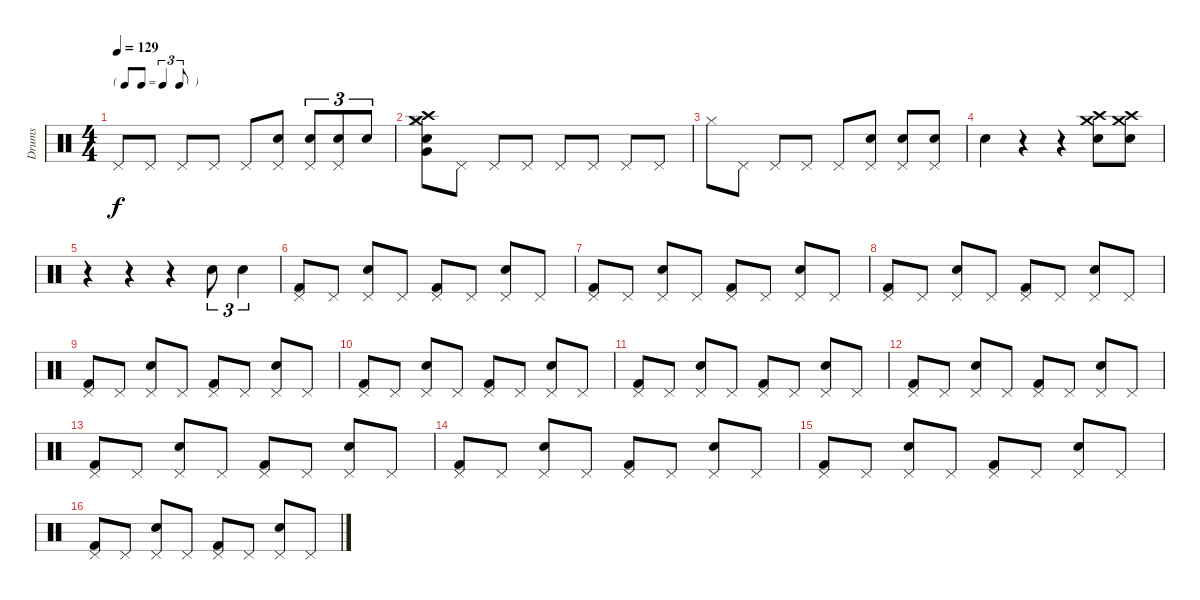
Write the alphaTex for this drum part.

\track ("Drums" "Drums") {instrument percussion}
\staff {score}
\articulation defaults
\ts (4 4)
\tf triplet8th
\tempo 129
\clef neutral
\ks c "Pedal Hi-Hat (hit)".8{dy f} "Pedal Hi-Hat (hit)".8 "Pedal Hi-Hat (hit)".8 "Pedal Hi-Hat (hit)".8 "Pedal Hi-Hat (hit)".8
("Pedal Hi-Hat (hit)" "Electric Snare (hit)").8 ("Pedal Hi-Hat (hit)" "Electric Snare (hit)").8{tu (3 2)} ("Pedal Hi-Hat (hit)" "Electric Snare (hit)").8{tu (3 2)} "Electric Snare (hit)".8{tu (3 2)} |
("Very Low Tom (hit)" "Crash high (hit)" "Hi-Hat (closed)" "Crash medium (hit)" "Electric Snare (hit)").8 "Pedal Hi-Hat (hit)".8 "Pedal Hi-Hat (hit)".8 "Pedal Hi-Hat (hit)".8 "Pedal Hi-Hat (hit)".8 "Pedal Hi-Hat (hit)".8 "Pedal Hi-Hat (hit)".8 "Pedal Hi-Hat (hit)".8 |
"Hi-Hat (closed)".8 "Pedal Hi-Hat (hit)".8 "Pedal Hi-Hat (hit)".8 "Pedal Hi-Hat (hit)".8 "Pedal Hi-Hat (hit)".8 ("Pedal Hi-Hat (hit)" "Electric Snare (hit)").8 ("Pedal Hi-Hat (hit)" "Electric Snare (hit)").8 ("Pedal Hi-Hat (hit)" "Electric Snare (hit)").8 |
"Electric Snare (hit)".4 r.4 r.4 ("Crash high (hit)" "Crash medium (hit)" "Electric Snare (hit)").8 ("Crash high (hit)" "Crash medium (hit)" "Electric Snare (hit)").8 |
r.4 r.4 r.4 "Electric Snare (hit)".8{tu (3 2)} "Electric Snare (hit)".4{tu (3 2)} |
("Pedal Hi-Hat (hit)" "Kick (hit) 2").8 "Pedal Hi-Hat (hit)".8 ("Pedal Hi-Hat (hit)" "Electric Snare (hit)").8 "Pedal Hi-Hat (hit)".8 ("Pedal Hi-Hat (hit)" "Kick (hit) 2").8 "Pedal Hi-Hat (hit)".8 ("Pedal Hi-Hat (hit)" "Electric Snare (hit)").8 "Pedal Hi-Hat (hit)".8 |
("Pedal Hi-Hat (hit)" "Kick (hit) 2").8 "Pedal Hi-Hat (hit)".8 ("Pedal Hi-Hat (hit)" "Electric Snare (hit)").8 "Pedal Hi-Hat (hit)".8 ("Pedal Hi-Hat (hit)" "Kick (hit) 2").8 "Pedal Hi-Hat (hit)".8 ("Pedal Hi-Hat (hit)" "Electric Snare (hit)").8 "Pedal Hi-Hat (hit)".8 |
("Pedal Hi-Hat (hit)" "Kick (hit) 2").8 "Pedal Hi-Hat (hit)".8 ("Pedal Hi-Hat (hit)" "Electric Snare (hit)").8 "Pedal Hi-Hat (hit)".8 ("Pedal Hi-Hat (hit)" "Kick (hit) 2").8 "Pedal Hi-Hat (hit)".8 ("Pedal Hi-Hat (hit)" "Electric Snare (hit)").8 "Pedal Hi-Hat (hit)".8 |
("Pedal Hi-Hat (hit)" "Kick (hit) 2").8 "Pedal Hi-Hat (hit)".8 ("Pedal Hi-Hat (hit)" "Electric Snare (hit)").8 "Pedal Hi-Hat (hit)".8 ("Pedal Hi-Hat (hit)" "Kick (hit) 2").8 "Pedal Hi-Hat (hit)".8 ("Pedal Hi-Hat (hit)" "Electric Snare (hit)").8 "Pedal Hi-Hat (hit)".8 |
("Pedal Hi-Hat (hit)" "Kick (hit) 2").8 "Pedal Hi-Hat (hit)".8 ("Pedal Hi-Hat (hit)" "Electric Snare (hit)").8 "Pedal Hi-Hat (hit)".8 ("Pedal Hi-Hat (hit)" "Kick (hit) 2").8 "Pedal Hi-Hat (hit)".8 ("Pedal Hi-Hat (hit)" "Electric Snare (hit)").8 "Pedal Hi-Hat (hit)".8 |
("Pedal Hi-Hat (hit)" "Kick (hit) 2").8 "Pedal Hi-Hat (hit)".8 ("Pedal Hi-Hat (hit)" "Electric Snare (hit)").8 "Pedal Hi-Hat (hit)".8 ("Pedal Hi-Hat (hit)" "Kick (hit) 2").8 "Pedal Hi-Hat (hit)".8 ("Pedal Hi-Hat (hit)" "Electric Snare (hit)").8 "Pedal Hi-Hat (hit)".8 |
("Pedal Hi-Hat (hit)" "Kick (hit) 2").8 "Pedal Hi-Hat (hit)".8 ("Pedal Hi-Hat (hit)" "Electric Snare (hit)").8 "Pedal Hi-Hat (hit)".8 ("Pedal Hi-Hat (hit)" "Kick (hit) 2").8 "Pedal Hi-Hat (hit)".8 ("Pedal Hi-Hat (hit)" "Electric Snare (hit)").8 "Pedal Hi-Hat (hit)".8 |
("Pedal Hi-Hat (hit)" "Kick (hit) 2").8 "Pedal Hi-Hat (hit)".8 ("Pedal Hi-Hat (hit)" "Electric Snare (hit)").8 "Pedal Hi-Hat (hit)".8 ("Pedal Hi-Hat (hit)" "Kick (hit) 2").8 "Pedal Hi-Hat (hit)".8 ("Pedal Hi-Hat (hit)" "Electric Snare (hit)").8 "Pedal Hi-Hat (hit)".8 |
("Pedal Hi-Hat (hit)" "Kick (hit) 2").8 "Pedal Hi-Hat (hit)".8 ("Pedal Hi-Hat (hit)" "Electric Snare (hit)").8 "Pedal Hi-Hat (hit)".8 ("Pedal Hi-Hat (hit)" "Kick (hit) 2").8 "Pedal Hi-Hat (hit)".8 ("Pedal Hi-Hat (hit)" "Electric Snare (hit)").8 "Pedal Hi-Hat (hit)".8 |
("Pedal Hi-Hat (hit)" "Kick (hit) 2").8 "Pedal Hi-Hat (hit)".8 ("Pedal Hi-Hat (hit)" "Electric Snare (hit)").8 "Pedal Hi-Hat (hit)".8 ("Pedal Hi-Hat (hit)" "Kick (hit) 2").8 "Pedal Hi-Hat (hit)".8 ("Pedal Hi-Hat (hit)" "Electric Snare (hit)").8 "Pedal Hi-Hat (hit)".8 |
("Pedal Hi-Hat (hit)" "Kick (hit) 2").8 "Pedal Hi-Hat (hit)".8 ("Pedal Hi-Hat (hit)" "Electric Snare (hit)").8 "Pedal Hi-Hat (hit)".8 ("Pedal Hi-Hat (hit)" "Kick (hit) 2").8 "Pedal Hi-Hat (hit)".8 ("Pedal Hi-Hat (hit)" "Electric Snare (hit)").8 "Pedal Hi-Hat (hit)".8
